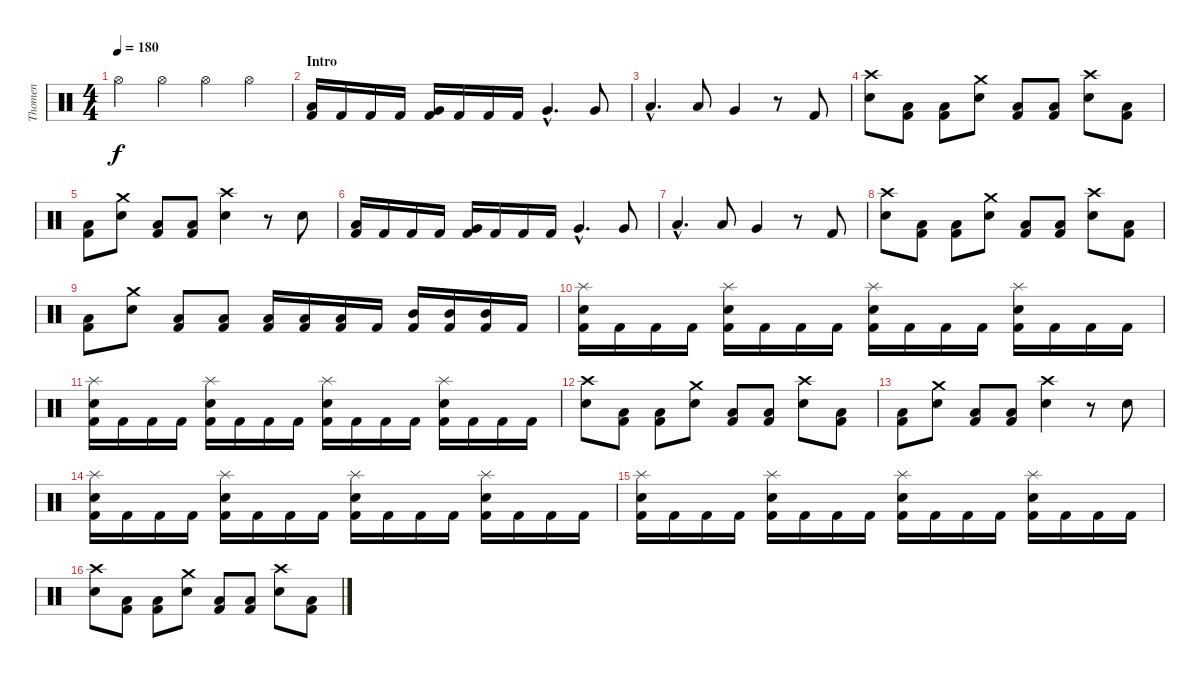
\track ("Thomen" "Thomen") {instrument percussion}
\staff {score}
\articulation defaults
\ts (4 4)
\tempo 180
\clef neutral
\ks c "Hi-Hat (open)".4{dy f} "Hi-Hat (open)".4 "Hi-Hat (open)".4 "Hi-Hat (open)".4
|
\section ("" "Intro")
("Kick (hit) 2" "Low Floor Tom (hit)").16 "Kick (hit) 2".16 "Kick (hit) 2".16 "Kick (hit) 2".16 ("Kick (hit) 2" "Very Low Tom (hit)").16 "Kick (hit) 2".16 "Kick (hit) 2".16 "Kick (hit) 2".16 "Very Low Tom (hit)"{hac}.4{d} "Very Low Tom (hit)".8 |
"Low Floor Tom (hit)"{hac}.4{d} "Low Floor Tom (hit)".8 "Very Low Tom (hit)".4 r.8 "Kick (hit) 2".8 |
("Electric Snare (hit)" "Crash high (hit)").8 ("Kick (hit) 2" "Low Tom (hit)").8 ("Kick (hit) 2" "Low Tom (hit)").8 ("Electric Snare (hit)" "Crash medium (hit)").8 ("Kick (hit) 2" "Low Tom (hit)").8 ("Kick (hit) 2" "Low Tom (hit)").8 ("Electric Snare (hit)" "Crash high (hit)").8 ("Kick (hit) 2" "Low Tom (hit)").8 |
("Kick (hit) 2" "Low Tom (hit)").8 ("Electric Snare (hit)" "Crash medium (hit)").8 ("Kick (hit) 2" "Low Tom (hit)").8 ("Kick (hit) 2" "Low Tom (hit)").8 ("Electric Snare (hit)" "Crash high (hit)").4 r.8 "Electric Snare (hit)".8 |
("Kick (hit) 2" "Low Floor Tom (hit)").16 "Kick (hit) 2".16 "Kick (hit) 2".16 "Kick (hit) 2".16 ("Kick (hit) 2" "Very Low Tom (hit)").16 "Kick (hit) 2".16 "Kick (hit) 2".16 "Kick (hit) 2".16 "Very Low Tom (hit)"{hac}.4{d} "Very Low Tom (hit)".8 |
"Low Floor Tom (hit)"{hac}.4{d} "Low Floor Tom (hit)".8 "Very Low Tom (hit)".4 r.8 "Kick (hit) 2".8 |
("Electric Snare (hit)" "Crash high (hit)").8 ("Kick (hit) 2" "Low Tom (hit)").8 ("Kick (hit) 2" "Low Tom (hit)").8 ("Electric Snare (hit)" "Crash medium (hit)").8 ("Kick (hit) 2" "Low Tom (hit)").8 ("Kick (hit) 2" "Low Tom (hit)").8 ("Electric Snare (hit)" "Crash high (hit)").8 ("Kick (hit) 2" "Low Tom (hit)").8 |
("Kick (hit) 2" "Low Tom (hit)").8 ("Electric Snare (hit)" "Crash medium (hit)").8 ("Kick (hit) 2" "Low Tom (hit)").8 ("Kick (hit) 2" "Low Tom (hit)").8 ("Kick (hit) 2" "Low Tom (hit)").16 ("Kick (hit) 2" "Low Tom (hit)").16 ("Kick (hit) 2" "Low Tom (hit)").16 "Kick (hit) 2".16 ("Kick (hit) 2" "Mid Tom (hit)").16 ("Kick (hit) 2" "Mid Tom (hit)").16 ("Kick (hit) 2" "Mid Tom (hit)").16 "Kick (hit) 2".16 |
("Kick (hit) 2" "Electric Snare (hit)" "Splash (hit)").16 "Kick (hit) 2".16 "Kick (hit) 2".16 "Kick (hit) 2".16 ("Kick (hit) 2" "Electric Snare (hit)" "Splash (hit)").16 "Kick (hit) 2".16 "Kick (hit) 2".16 "Kick (hit) 2".16 ("Kick (hit) 2" "Electric Snare (hit)" "Splash (hit)").16 "Kick (hit) 2".16 "Kick (hit) 2".16 "Kick (hit) 2".16 ("Kick (hit) 2" "Electric Snare (hit)" "Splash (hit)").16 "Kick (hit) 2".16 "Kick (hit) 2".16 "Kick (hit) 2".16 |
("Kick (hit) 2" "Electric Snare (hit)" "Splash (hit)").16 "Kick (hit) 2".16 "Kick (hit) 2".16 "Kick (hit) 2".16 ("Kick (hit) 2" "Electric Snare (hit)" "Splash (hit)").16 "Kick (hit) 2".16 "Kick (hit) 2".16 "Kick (hit) 2".16 ("Kick (hit) 2" "Electric Snare (hit)" "Splash (hit)").16 "Kick (hit) 2".16 "Kick (hit) 2".16 "Kick (hit) 2".16 ("Kick (hit) 2" "Electric Snare (hit)" "Splash (hit)").16 "Kick (hit) 2".16 "Kick (hit) 2".16 "Kick (hit) 2".16 |
("Electric Snare (hit)" "Crash high (hit)").8 ("Kick (hit) 2" "Low Tom (hit)").8 ("Kick (hit) 2" "Low Tom (hit)").8 ("Electric Snare (hit)" "Crash medium (hit)").8 ("Kick (hit) 2" "Low Tom (hit)").8 ("Kick (hit) 2" "Low Tom (hit)").8 ("Electric Snare (hit)" "Crash high (hit)").8 ("Kick (hit) 2" "Low Tom (hit)").8 |
("Kick (hit) 2" "Low Tom (hit)").8 ("Electric Snare (hit)" "Crash medium (hit)").8 ("Kick (hit) 2" "Low Tom (hit)").8 ("Kick (hit) 2" "Low Tom (hit)").8 ("Electric Snare (hit)" "Crash high (hit)").4 r.8 "Electric Snare (hit)".8 |
("Kick (hit) 2" "Electric Snare (hit)" "Splash (hit)").16 "Kick (hit) 2".16 "Kick (hit) 2".16 "Kick (hit) 2".16 ("Kick (hit) 2" "Electric Snare (hit)" "Splash (hit)").16 "Kick (hit) 2".16 "Kick (hit) 2".16 "Kick (hit) 2".16 ("Kick (hit) 2" "Electric Snare (hit)" "Splash (hit)").16 "Kick (hit) 2".16 "Kick (hit) 2".16 "Kick (hit) 2".16 ("Kick (hit) 2" "Electric Snare (hit)" "Splash (hit)").16 "Kick (hit) 2".16 "Kick (hit) 2".16 "Kick (hit) 2".16 |
("Kick (hit) 2" "Electric Snare (hit)" "Splash (hit)").16 "Kick (hit) 2".16 "Kick (hit) 2".16 "Kick (hit) 2".16 ("Kick (hit) 2" "Electric Snare (hit)" "Splash (hit)").16 "Kick (hit) 2".16 "Kick (hit) 2".16 "Kick (hit) 2".16 ("Kick (hit) 2" "Electric Snare (hit)" "Splash (hit)").16 "Kick (hit) 2".16 "Kick (hit) 2".16 "Kick (hit) 2".16 ("Kick (hit) 2" "Electric Snare (hit)" "Splash (hit)").16 "Kick (hit) 2".16 "Kick (hit) 2".16 "Kick (hit) 2".16 |
("Electric Snare (hit)" "Crash high (hit)").8 ("Kick (hit) 2" "Low Tom (hit)").8 ("Kick (hit) 2" "Low Tom (hit)").8 ("Electric Snare (hit)" "Crash medium (hit)").8 ("Kick (hit) 2" "Low Tom (hit)").8 ("Kick (hit) 2" "Low Tom (hit)").8 ("Electric Snare (hit)" "Crash high (hit)").8 ("Kick (hit) 2" "Low Tom (hit)").8
